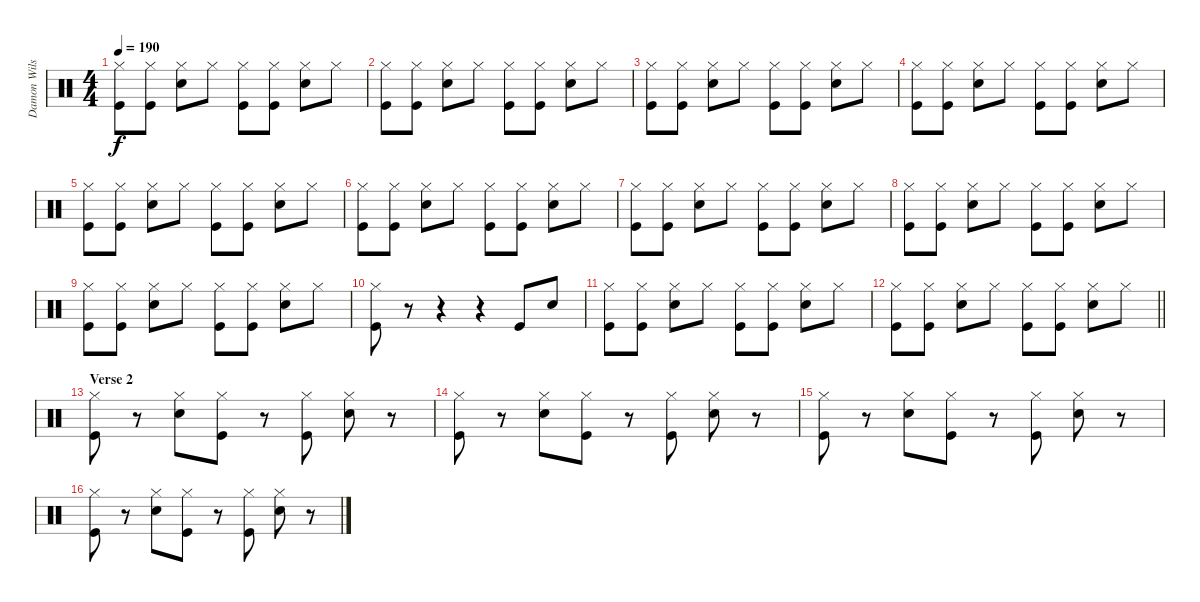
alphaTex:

\track ("Damon Wilson" "Damon Wils") {instrument percussion}
\staff {score}
\articulation defaults
\ts (4 4)
\tempo 190
\clef neutral
\ks c
("Hi-Hat (closed)" "Kick (hit)").8{dy f} ("Hi-Hat (closed)" "Kick (hit)").8 ("Hi-Hat (closed)" "Snare (hit) 2").8 "Hi-Hat (closed)".8 ("Hi-Hat (closed)" "Kick (hit)").8 ("Hi-Hat (closed)" "Kick (hit)").8 ("Hi-Hat (closed)" "Snare (hit) 2").8 "Hi-Hat (closed)".8 |
("Hi-Hat (closed)" "Kick (hit)").8 ("Hi-Hat (closed)" "Kick (hit)").8 ("Hi-Hat (closed)" "Snare (hit) 2").8 "Hi-Hat (closed)".8 ("Hi-Hat (closed)" "Kick (hit)").8 ("Hi-Hat (closed)" "Kick (hit)").8 ("Hi-Hat (closed)" "Snare (hit) 2").8 "Hi-Hat (closed)".8 |
("Hi-Hat (closed)" "Kick (hit)").8 ("Hi-Hat (closed)" "Kick (hit)").8 ("Hi-Hat (closed)" "Snare (hit) 2").8 "Hi-Hat (closed)".8 ("Hi-Hat (closed)" "Kick (hit)").8 ("Hi-Hat (closed)" "Kick (hit)").8 ("Hi-Hat (closed)" "Snare (hit) 2").8 "Hi-Hat (closed)".8 |
("Hi-Hat (closed)" "Kick (hit)").8 ("Hi-Hat (closed)" "Kick (hit)").8 ("Hi-Hat (closed)" "Snare (hit) 2").8 "Hi-Hat (closed)".8 ("Hi-Hat (closed)" "Kick (hit)").8 ("Hi-Hat (closed)" "Kick (hit)").8 ("Hi-Hat (closed)" "Snare (hit) 2").8 "Hi-Hat (closed)".8 |
("Hi-Hat (closed)" "Kick (hit)").8 ("Hi-Hat (closed)" "Kick (hit)").8 ("Hi-Hat (closed)" "Snare (hit) 2").8 "Hi-Hat (closed)".8 ("Hi-Hat (closed)" "Kick (hit)").8 ("Hi-Hat (closed)" "Kick (hit)").8 ("Hi-Hat (closed)" "Snare (hit) 2").8 "Hi-Hat (closed)".8 |
("Hi-Hat (closed)" "Kick (hit)").8 ("Hi-Hat (closed)" "Kick (hit)").8 ("Hi-Hat (closed)" "Snare (hit) 2").8 "Hi-Hat (closed)".8 ("Hi-Hat (closed)" "Kick (hit)").8 ("Hi-Hat (closed)" "Kick (hit)").8 ("Hi-Hat (closed)" "Snare (hit) 2").8 "Hi-Hat (closed)".8 |
("Hi-Hat (closed)" "Kick (hit)").8 ("Hi-Hat (closed)" "Kick (hit)").8 ("Hi-Hat (closed)" "Snare (hit) 2").8 "Hi-Hat (closed)".8 ("Hi-Hat (closed)" "Kick (hit)").8 ("Hi-Hat (closed)" "Kick (hit)").8 ("Hi-Hat (closed)" "Snare (hit) 2").8 "Hi-Hat (closed)".8 |
("Hi-Hat (closed)" "Kick (hit)").8 ("Hi-Hat (closed)" "Kick (hit)").8 ("Hi-Hat (closed)" "Snare (hit) 2").8 "Hi-Hat (closed)".8 ("Hi-Hat (closed)" "Kick (hit)").8 ("Hi-Hat (closed)" "Kick (hit)").8 ("Hi-Hat (closed)" "Snare (hit) 2").8 "Hi-Hat (closed)".8 |
("Hi-Hat (closed)" "Kick (hit)").8 ("Hi-Hat (closed)" "Kick (hit)").8 ("Hi-Hat (closed)" "Snare (hit) 2").8 "Hi-Hat (closed)".8 ("Hi-Hat (closed)" "Kick (hit)").8 ("Hi-Hat (closed)" "Kick (hit)").8 ("Hi-Hat (closed)" "Snare (hit) 2").8 "Hi-Hat (closed)".8 |
("Hi-Hat (closed)" "Kick (hit)").8 r.8 r.4 r.4 "Kick (hit)".8 "Snare (hit) 2".8 |
("Hi-Hat (closed)" "Kick (hit)").8 ("Hi-Hat (closed)" "Kick (hit)").8 ("Hi-Hat (closed)" "Snare (hit) 2").8 "Hi-Hat (closed)".8 ("Hi-Hat (closed)" "Kick (hit)").8 ("Hi-Hat (closed)" "Kick (hit)").8 ("Hi-Hat (closed)" "Snare (hit) 2").8 "Hi-Hat (closed)".8 |
\barLineRight lightlight
("Hi-Hat (closed)" "Kick (hit)").8 ("Hi-Hat (closed)" "Kick (hit)").8 ("Hi-Hat (closed)" "Snare (hit) 2").8 "Hi-Hat (closed)".8 ("Hi-Hat (closed)" "Kick (hit)").8 ("Hi-Hat (closed)" "Kick (hit)").8 ("Hi-Hat (closed)" "Snare (hit) 2").8 "Hi-Hat (closed)".8 |
\section ("" "Verse 2")
("Hi-Hat (closed)" "Kick (hit)").8 r.8 ("Hi-Hat (closed)" "Snare (hit) 2").8 ("Hi-Hat (closed)" "Kick (hit)").8 r.8 ("Hi-Hat (closed)" "Kick (hit)").8 ("Hi-Hat (closed)" "Snare (hit) 2").8 r.8 |
("Hi-Hat (closed)" "Kick (hit)").8 r.8 ("Hi-Hat (closed)" "Snare (hit) 2").8 ("Hi-Hat (closed)" "Kick (hit)").8 r.8 ("Hi-Hat (closed)" "Kick (hit)").8 ("Hi-Hat (closed)" "Snare (hit) 2").8 r.8 |
("Hi-Hat (closed)" "Kick (hit)").8 r.8 ("Hi-Hat (closed)" "Snare (hit) 2").8 ("Hi-Hat (closed)" "Kick (hit)").8 r.8 ("Hi-Hat (closed)" "Kick (hit)").8 ("Hi-Hat (closed)" "Snare (hit) 2").8 r.8 |
("Hi-Hat (closed)" "Kick (hit)").8 r.8 ("Hi-Hat (closed)" "Snare (hit) 2").8 ("Hi-Hat (closed)" "Kick (hit)").8 r.8 ("Hi-Hat (closed)" "Kick (hit)").8 ("Hi-Hat (closed)" "Snare (hit) 2").8 r.8
